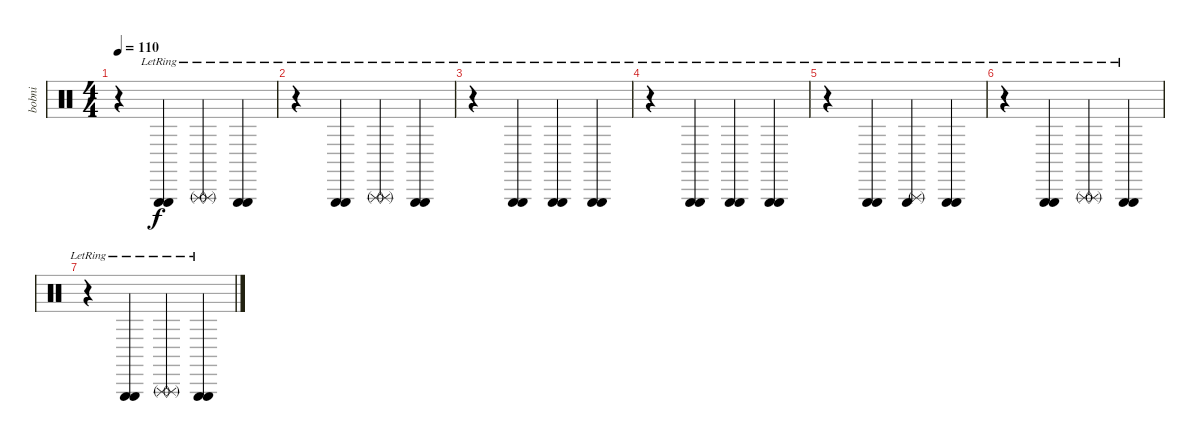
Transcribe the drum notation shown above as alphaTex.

\track ("bobni" "bobni") {instrument percussion}
\staff {score}
\articulation defaults
\ts (4 4)
\tempo 110
\clef neutral
\ks c
r.4{dy f} ("Triangle (hit)"{lr} "Triangle (hit)"{lr}).4 ("Triangle (rnute)"{lr} "Triangle (rnute)"{lr}).4 ("Triangle (hit)"{lr} "Triangle (hit)"{lr}).4 |
r.4 ("Triangle (hit)"{lr} "Triangle (hit)"{lr}).4 ("Triangle (rnute)"{lr} "Triangle (rnute)"{lr}).4 ("Triangle (hit)"{lr} "Triangle (hit)"{lr}).4 |
r.4 ("Triangle (hit)"{lr} "Triangle (hit)"{lr}).4 ("Triangle (hit)"{lr} "Triangle (hit)"{lr}).4 ("Triangle (hit)"{lr} "Triangle (hit)"{lr}).4 |
r.4 ("Triangle (hit)"{lr} "Triangle (hit)"{lr}).4 ("Triangle (hit)"{lr} "Triangle (hit)"{lr}).4 ("Triangle (hit)"{lr} "Triangle (hit)"{lr}).4 |
r.4 ("Triangle (hit)"{lr} "Triangle (hit)"{lr}).4 ("Triangle (rnute)"{lr} "Triangle (hit)"{lr}).4 ("Triangle (hit)"{lr} "Triangle (hit)"{lr}).4 |
r.4 ("Triangle (hit)"{lr} "Triangle (hit)"{lr}).4 ("Triangle (rnute)"{lr} "Triangle (rnute)"{lr}).4 ("Triangle (hit)"{lr} "Triangle (hit)"{lr}).4 |
r.4 ("Triangle (hit)"{lr} "Triangle (hit)"{lr}).4 ("Triangle (rnute)"{lr} "Triangle (rnute)"{lr}).4 ("Triangle (hit)"{lr} "Triangle (hit)"{lr}).4
